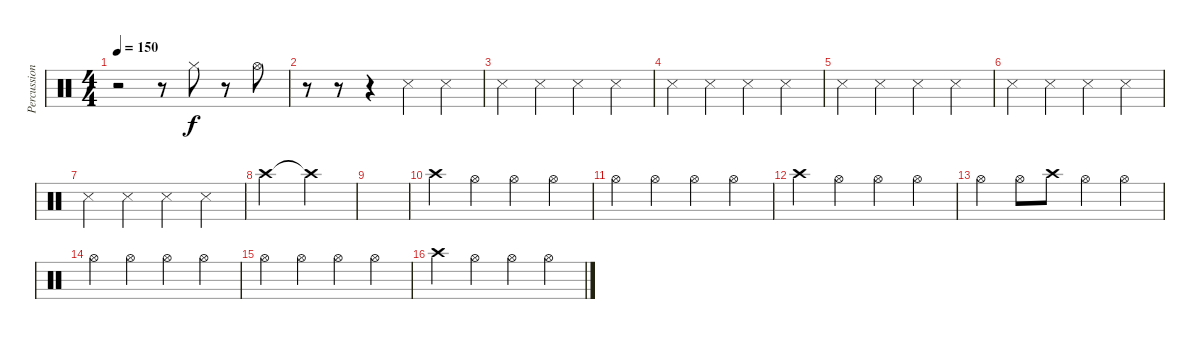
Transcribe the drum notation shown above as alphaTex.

\track ("Percussion Cymbals" "Percussion") {instrument percussion}
\staff {score}
\articulation defaults
\ts (4 4)
\tempo 150
\clef neutral
\ks c
r.2{dy f} r.8 "Hi-Hat (closed)".8 r.8 "Hi-Hat (open)".8 |
r.8 r.8 r.4 "Snare (side stick) 3".4 "Snare (side stick) 3".4 |
"Snare (side stick) 3".4 "Snare (side stick) 3".4 "Snare (side stick) 3".4 "Snare (side stick) 3".4 |
"Snare (side stick) 3".4 "Snare (side stick) 3".4 "Snare (side stick) 3".4 "Snare (side stick) 3".4 |
"Snare (side stick) 3".4 "Snare (side stick) 3".4 "Snare (side stick) 3".4 "Snare (side stick) 3".4 |
"Snare (side stick) 3".4 "Snare (side stick) 3".4 "Snare (side stick) 3".4 "Snare (side stick) 3".4 |
"Snare (side stick) 3".4 "Snare (side stick) 3".4 "Snare (side stick) 3".4 "Snare (side stick) 3".4 |
"Crash high (hit)".2 "Crash high (hit)"{t}.2 |
|
"Crash high (hit)".4 "Hi-Hat (open)".4 "Hi-Hat (open)".4 "Hi-Hat (open)".4 |
"Hi-Hat (open)".4 "Hi-Hat (open)".4 "Hi-Hat (open)".4 "Hi-Hat (open)".4 |
"Crash high (hit)".4 "Hi-Hat (open)".4 "Hi-Hat (open)".4 "Hi-Hat (open)".4 |
"Hi-Hat (open)".4 "Hi-Hat (open)".8 "Crash high (hit)".8 "Hi-Hat (open)".4 "Hi-Hat (open)".4 |
"Hi-Hat (open)".4 "Hi-Hat (open)".4 "Hi-Hat (open)".4 "Hi-Hat (open)".4 |
"Hi-Hat (open)".4 "Hi-Hat (open)".4 "Hi-Hat (open)".4 "Hi-Hat (open)".4 |
"Crash high (hit)".4 "Hi-Hat (open)".4 "Hi-Hat (open)".4 "Hi-Hat (open)".4
